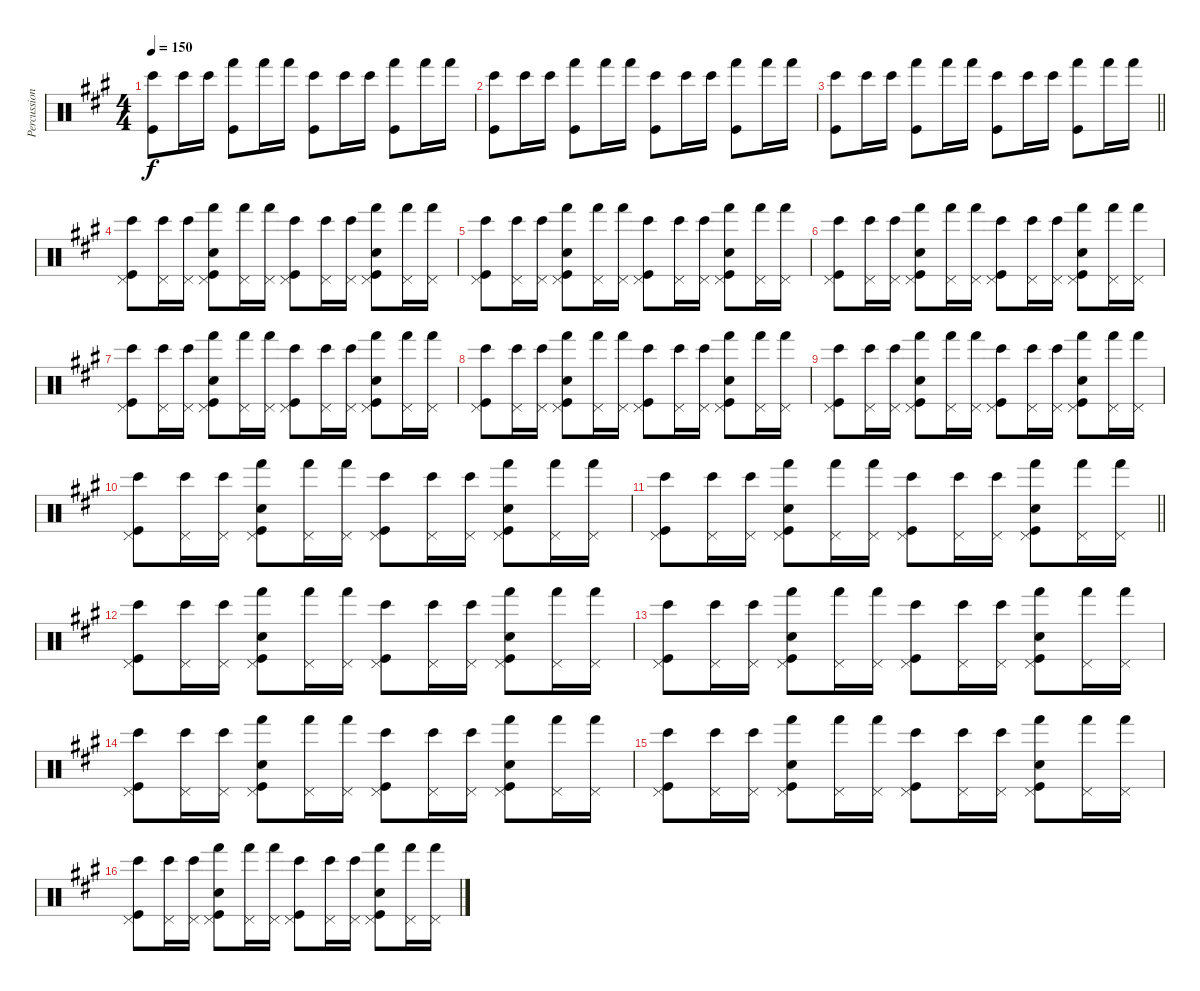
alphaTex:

\track ("Percussions" "Percussion") {instrument percussion}
\staff {score}
\articulation defaults
\ts (4 4)
\tempo 150
\clef neutral
\ks a
("Kick (hit)" "Bongo High (hit)").8{dy f} "Bongo High (hit)".16 "Bongo High (hit)".16 ("Kick (hit)" "Hand (hit)").8 "Hand (hit)".16 "Hand (hit)".16 ("Kick (hit)" "Bongo High (hit)").8 "Bongo High (hit)".16 "Bongo High (hit)".16 ("Kick (hit)" "Hand (hit)").8 "Hand (hit)".16 "Hand (hit)".16 |
("Kick (hit)" "Bongo High (hit)").8 "Bongo High (hit)".16 "Bongo High (hit)".16 ("Kick (hit)" "Hand (hit)").8 "Hand (hit)".16 "Hand (hit)".16 ("Kick (hit)" "Bongo High (hit)").8 "Bongo High (hit)".16 "Bongo High (hit)".16 ("Kick (hit)" "Hand (hit)").8 "Hand (hit)".16 "Hand (hit)".16 |
\barLineRight lightlight
("Kick (hit)" "Bongo High (hit)").8 "Bongo High (hit)".16 "Bongo High (hit)".16 ("Kick (hit)" "Hand (hit)").8 "Hand (hit)".16 "Hand (hit)".16 ("Kick (hit)" "Bongo High (hit)").8 "Bongo High (hit)".16 "Bongo High (hit)".16 ("Kick (hit)" "Hand (hit)").8 "Hand (hit)".16 "Hand (hit)".16 |
("Pedal Hi-Hat (hit)" "Kick (hit)" "Bongo High (hit)").8 ("Pedal Hi-Hat (hit)" "Bongo High (hit)").16 ("Pedal Hi-Hat (hit)" "Bongo High (hit)").16 ("Pedal Hi-Hat (hit)" "Snare (hit) 2" "Kick (hit)" "Hand (hit)").8 ("Pedal Hi-Hat (hit)" "Hand (hit)").16 ("Pedal Hi-Hat (hit)" "Hand (hit)").16 ("Pedal Hi-Hat (hit)" "Kick (hit)" "Bongo High (hit)").8 ("Pedal Hi-Hat (hit)" "Bongo High (hit)").16 ("Pedal Hi-Hat (hit)" "Bongo High (hit)").16 ("Pedal Hi-Hat (hit)" "Snare (hit) 2" "Kick (hit)" "Hand (hit)").8 ("Pedal Hi-Hat (hit)" "Hand (hit)").16 ("Pedal Hi-Hat (hit)" "Hand (hit)").16 |
("Pedal Hi-Hat (hit)" "Kick (hit)" "Bongo High (hit)").8 ("Pedal Hi-Hat (hit)" "Bongo High (hit)").16 ("Pedal Hi-Hat (hit)" "Bongo High (hit)").16 ("Pedal Hi-Hat (hit)" "Snare (hit) 2" "Kick (hit)" "Hand (hit)").8 ("Pedal Hi-Hat (hit)" "Hand (hit)").16 ("Pedal Hi-Hat (hit)" "Hand (hit)").16 ("Pedal Hi-Hat (hit)" "Kick (hit)" "Bongo High (hit)").8 ("Pedal Hi-Hat (hit)" "Bongo High (hit)").16 ("Pedal Hi-Hat (hit)" "Bongo High (hit)").16 ("Pedal Hi-Hat (hit)" "Snare (hit) 2" "Kick (hit)" "Hand (hit)").8 ("Pedal Hi-Hat (hit)" "Hand (hit)").16 ("Pedal Hi-Hat (hit)" "Hand (hit)").16 |
("Pedal Hi-Hat (hit)" "Kick (hit)" "Bongo High (hit)").8 ("Pedal Hi-Hat (hit)" "Bongo High (hit)").16 ("Pedal Hi-Hat (hit)" "Bongo High (hit)").16 ("Pedal Hi-Hat (hit)" "Snare (hit) 2" "Kick (hit)" "Hand (hit)").8 ("Pedal Hi-Hat (hit)" "Hand (hit)").16 ("Pedal Hi-Hat (hit)" "Hand (hit)").16 ("Pedal Hi-Hat (hit)" "Kick (hit)" "Bongo High (hit)").8 ("Pedal Hi-Hat (hit)" "Bongo High (hit)").16 ("Pedal Hi-Hat (hit)" "Bongo High (hit)").16 ("Pedal Hi-Hat (hit)" "Snare (hit) 2" "Kick (hit)" "Hand (hit)").8 ("Pedal Hi-Hat (hit)" "Hand (hit)").16 ("Pedal Hi-Hat (hit)" "Hand (hit)").16 |
("Pedal Hi-Hat (hit)" "Kick (hit)" "Bongo High (hit)").8 ("Pedal Hi-Hat (hit)" "Bongo High (hit)").16 ("Pedal Hi-Hat (hit)" "Bongo High (hit)").16 ("Pedal Hi-Hat (hit)" "Snare (hit) 2" "Kick (hit)" "Hand (hit)").8 ("Pedal Hi-Hat (hit)" "Hand (hit)").16 ("Pedal Hi-Hat (hit)" "Hand (hit)").16 ("Pedal Hi-Hat (hit)" "Kick (hit)" "Bongo High (hit)").8 ("Pedal Hi-Hat (hit)" "Bongo High (hit)").16 ("Pedal Hi-Hat (hit)" "Bongo High (hit)").16 ("Pedal Hi-Hat (hit)" "Snare (hit) 2" "Kick (hit)" "Hand (hit)").8 ("Pedal Hi-Hat (hit)" "Hand (hit)").16 ("Pedal Hi-Hat (hit)" "Hand (hit)").16 |
("Pedal Hi-Hat (hit)" "Kick (hit)" "Bongo High (hit)").8 ("Pedal Hi-Hat (hit)" "Bongo High (hit)").16 ("Pedal Hi-Hat (hit)" "Bongo High (hit)").16 ("Pedal Hi-Hat (hit)" "Snare (hit) 2" "Kick (hit)" "Hand (hit)").8 ("Pedal Hi-Hat (hit)" "Hand (hit)").16 ("Pedal Hi-Hat (hit)" "Hand (hit)").16 ("Pedal Hi-Hat (hit)" "Kick (hit)" "Bongo High (hit)").8 ("Pedal Hi-Hat (hit)" "Bongo High (hit)").16 ("Pedal Hi-Hat (hit)" "Bongo High (hit)").16 ("Pedal Hi-Hat (hit)" "Snare (hit) 2" "Kick (hit)" "Hand (hit)").8 ("Pedal Hi-Hat (hit)" "Hand (hit)").16 ("Pedal Hi-Hat (hit)" "Hand (hit)").16 |
("Pedal Hi-Hat (hit)" "Kick (hit)" "Bongo High (hit)").8 ("Pedal Hi-Hat (hit)" "Bongo High (hit)").16 ("Pedal Hi-Hat (hit)" "Bongo High (hit)").16 ("Pedal Hi-Hat (hit)" "Snare (hit) 2" "Kick (hit)" "Hand (hit)").8 ("Pedal Hi-Hat (hit)" "Hand (hit)").16 ("Pedal Hi-Hat (hit)" "Hand (hit)").16 ("Pedal Hi-Hat (hit)" "Kick (hit)" "Bongo High (hit)").8 ("Pedal Hi-Hat (hit)" "Bongo High (hit)").16 ("Pedal Hi-Hat (hit)" "Bongo High (hit)").16 ("Pedal Hi-Hat (hit)" "Snare (hit) 2" "Kick (hit)" "Hand (hit)").8 ("Pedal Hi-Hat (hit)" "Hand (hit)").16 ("Pedal Hi-Hat (hit)" "Hand (hit)").16 |
("Pedal Hi-Hat (hit)" "Kick (hit)" "Bongo High (hit)").8 ("Pedal Hi-Hat (hit)" "Bongo High (hit)").16 ("Pedal Hi-Hat (hit)" "Bongo High (hit)").16 ("Pedal Hi-Hat (hit)" "Snare (hit) 2" "Kick (hit)" "Hand (hit)").8 ("Pedal Hi-Hat (hit)" "Hand (hit)").16 ("Pedal Hi-Hat (hit)" "Hand (hit)").16 ("Pedal Hi-Hat (hit)" "Kick (hit)" "Bongo High (hit)").8 ("Pedal Hi-Hat (hit)" "Bongo High (hit)").16 ("Pedal Hi-Hat (hit)" "Bongo High (hit)").16 ("Pedal Hi-Hat (hit)" "Snare (hit) 2" "Kick (hit)" "Hand (hit)").8 ("Pedal Hi-Hat (hit)" "Hand (hit)").16 ("Pedal Hi-Hat (hit)" "Hand (hit)").16 |
\barLineRight lightlight
("Pedal Hi-Hat (hit)" "Kick (hit)" "Bongo High (hit)").8 ("Pedal Hi-Hat (hit)" "Bongo High (hit)").16 ("Pedal Hi-Hat (hit)" "Bongo High (hit)").16 ("Pedal Hi-Hat (hit)" "Snare (hit) 2" "Kick (hit)" "Hand (hit)").8 ("Pedal Hi-Hat (hit)" "Hand (hit)").16 ("Pedal Hi-Hat (hit)" "Hand (hit)").16 ("Pedal Hi-Hat (hit)" "Kick (hit)" "Bongo High (hit)").8 ("Pedal Hi-Hat (hit)" "Bongo High (hit)").16 ("Pedal Hi-Hat (hit)" "Bongo High (hit)").16 ("Pedal Hi-Hat (hit)" "Snare (hit) 2" "Kick (hit)" "Hand (hit)").8 ("Pedal Hi-Hat (hit)" "Hand (hit)").16 ("Pedal Hi-Hat (hit)" "Hand (hit)").16 |
("Pedal Hi-Hat (hit)" "Kick (hit)" "Bongo High (hit)").8 ("Pedal Hi-Hat (hit)" "Bongo High (hit)").16 ("Pedal Hi-Hat (hit)" "Bongo High (hit)").16 ("Pedal Hi-Hat (hit)" "Snare (hit) 2" "Kick (hit)" "Hand (hit)").8 ("Pedal Hi-Hat (hit)" "Hand (hit)").16 ("Pedal Hi-Hat (hit)" "Hand (hit)").16 ("Pedal Hi-Hat (hit)" "Kick (hit)" "Bongo High (hit)").8 ("Pedal Hi-Hat (hit)" "Bongo High (hit)").16 ("Pedal Hi-Hat (hit)" "Bongo High (hit)").16 ("Pedal Hi-Hat (hit)" "Snare (hit) 2" "Kick (hit)" "Hand (hit)").8 ("Pedal Hi-Hat (hit)" "Hand (hit)").16 ("Pedal Hi-Hat (hit)" "Hand (hit)").16 |
("Pedal Hi-Hat (hit)" "Kick (hit)" "Bongo High (hit)").8 ("Pedal Hi-Hat (hit)" "Bongo High (hit)").16 ("Pedal Hi-Hat (hit)" "Bongo High (hit)").16 ("Pedal Hi-Hat (hit)" "Snare (hit) 2" "Kick (hit)" "Hand (hit)").8 ("Pedal Hi-Hat (hit)" "Hand (hit)").16 ("Pedal Hi-Hat (hit)" "Hand (hit)").16 ("Pedal Hi-Hat (hit)" "Kick (hit)" "Bongo High (hit)").8 ("Pedal Hi-Hat (hit)" "Bongo High (hit)").16 ("Pedal Hi-Hat (hit)" "Bongo High (hit)").16 ("Pedal Hi-Hat (hit)" "Snare (hit) 2" "Kick (hit)" "Hand (hit)").8 ("Pedal Hi-Hat (hit)" "Hand (hit)").16 ("Pedal Hi-Hat (hit)" "Hand (hit)").16 |
("Pedal Hi-Hat (hit)" "Kick (hit)" "Bongo High (hit)").8 ("Pedal Hi-Hat (hit)" "Bongo High (hit)").16 ("Pedal Hi-Hat (hit)" "Bongo High (hit)").16 ("Pedal Hi-Hat (hit)" "Snare (hit) 2" "Kick (hit)" "Hand (hit)").8 ("Pedal Hi-Hat (hit)" "Hand (hit)").16 ("Pedal Hi-Hat (hit)" "Hand (hit)").16 ("Pedal Hi-Hat (hit)" "Kick (hit)" "Bongo High (hit)").8 ("Pedal Hi-Hat (hit)" "Bongo High (hit)").16 ("Pedal Hi-Hat (hit)" "Bongo High (hit)").16 ("Pedal Hi-Hat (hit)" "Snare (hit) 2" "Kick (hit)" "Hand (hit)").8 ("Pedal Hi-Hat (hit)" "Hand (hit)").16 ("Pedal Hi-Hat (hit)" "Hand (hit)").16 |
("Pedal Hi-Hat (hit)" "Kick (hit)" "Bongo High (hit)").8 ("Pedal Hi-Hat (hit)" "Bongo High (hit)").16 ("Pedal Hi-Hat (hit)" "Bongo High (hit)").16 ("Pedal Hi-Hat (hit)" "Snare (hit) 2" "Kick (hit)" "Hand (hit)").8 ("Pedal Hi-Hat (hit)" "Hand (hit)").16 ("Pedal Hi-Hat (hit)" "Hand (hit)").16 ("Pedal Hi-Hat (hit)" "Kick (hit)" "Bongo High (hit)").8 ("Pedal Hi-Hat (hit)" "Bongo High (hit)").16 ("Pedal Hi-Hat (hit)" "Bongo High (hit)").16 ("Pedal Hi-Hat (hit)" "Snare (hit) 2" "Kick (hit)" "Hand (hit)").8 ("Pedal Hi-Hat (hit)" "Hand (hit)").16 ("Pedal Hi-Hat (hit)" "Hand (hit)").16 |
("Pedal Hi-Hat (hit)" "Kick (hit)" "Bongo High (hit)").8 ("Pedal Hi-Hat (hit)" "Bongo High (hit)").16 ("Pedal Hi-Hat (hit)" "Bongo High (hit)").16 ("Pedal Hi-Hat (hit)" "Snare (hit) 2" "Kick (hit)" "Hand (hit)").8 ("Pedal Hi-Hat (hit)" "Hand (hit)").16 ("Pedal Hi-Hat (hit)" "Hand (hit)").16 ("Pedal Hi-Hat (hit)" "Kick (hit)" "Bongo High (hit)").8 ("Pedal Hi-Hat (hit)" "Bongo High (hit)").16 ("Pedal Hi-Hat (hit)" "Bongo High (hit)").16 ("Pedal Hi-Hat (hit)" "Snare (hit) 2" "Kick (hit)" "Hand (hit)").8 ("Pedal Hi-Hat (hit)" "Hand (hit)").16 ("Pedal Hi-Hat (hit)" "Hand (hit)").16
